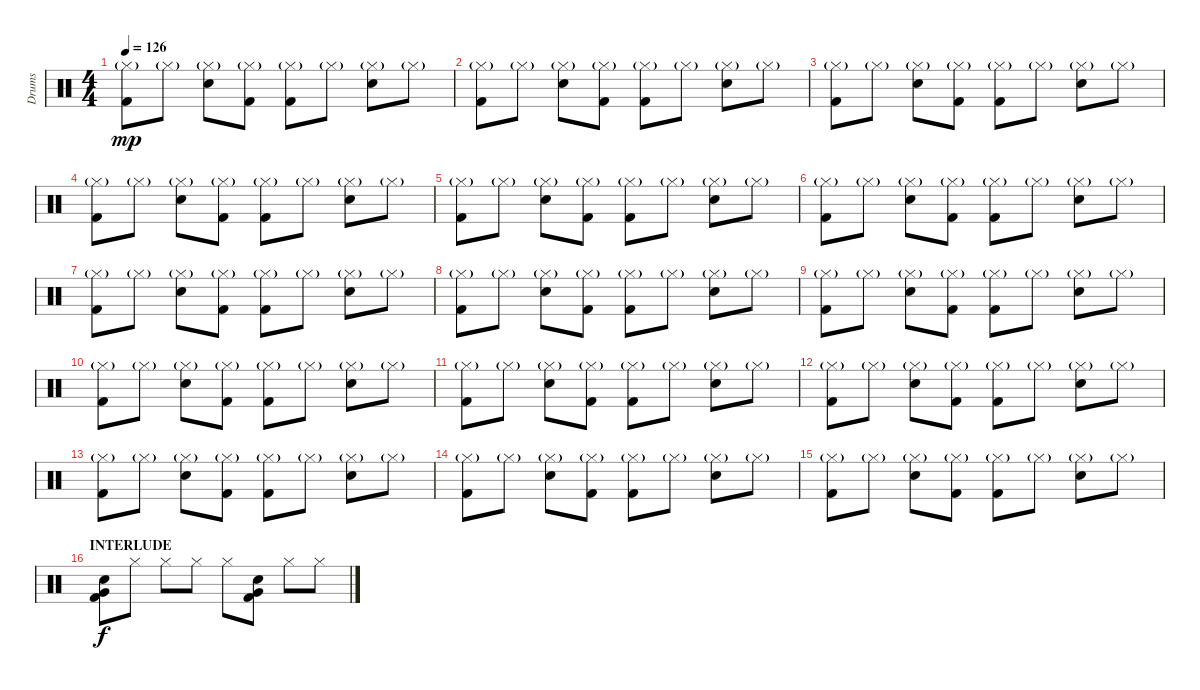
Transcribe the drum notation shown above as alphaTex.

\track ("Drums" "Drums") {instrument percussion}
\staff {score}
\articulation defaults
\ts (4 4)
\tempo 126
\clef neutral
\ks c
("Hi-Hat (closed)"{g} "Kick (hit) 2").8{dy mp} "Hi-Hat (closed)"{g}.8 ("Hi-Hat (closed)"{g} "Snare (hit) 2").8 ("Hi-Hat (closed)"{g} "Kick (hit) 2").8 ("Hi-Hat (closed)"{g} "Kick (hit) 2").8 "Hi-Hat (closed)"{g}.8 ("Hi-Hat (closed)"{g} "Snare (hit) 2").8 "Hi-Hat (closed)"{g}.8 |
("Hi-Hat (closed)"{g} "Kick (hit) 2").8 "Hi-Hat (closed)"{g}.8 ("Hi-Hat (closed)"{g} "Snare (hit) 2").8 ("Hi-Hat (closed)"{g} "Kick (hit) 2").8 ("Hi-Hat (closed)"{g} "Kick (hit) 2").8 "Hi-Hat (closed)"{g}.8 ("Hi-Hat (closed)"{g} "Snare (hit) 2").8 "Hi-Hat (closed)"{g}.8 |
("Hi-Hat (closed)"{g} "Kick (hit) 2").8 "Hi-Hat (closed)"{g}.8 ("Hi-Hat (closed)"{g} "Snare (hit) 2").8 ("Hi-Hat (closed)"{g} "Kick (hit) 2").8 ("Hi-Hat (closed)"{g} "Kick (hit) 2").8 "Hi-Hat (closed)"{g}.8 ("Hi-Hat (closed)"{g} "Snare (hit) 2").8 "Hi-Hat (closed)"{g}.8 |
("Hi-Hat (closed)"{g} "Kick (hit) 2").8 "Hi-Hat (closed)"{g}.8 ("Hi-Hat (closed)"{g} "Snare (hit) 2").8 ("Hi-Hat (closed)"{g} "Kick (hit) 2").8 ("Hi-Hat (closed)"{g} "Kick (hit) 2").8 "Hi-Hat (closed)"{g}.8 ("Hi-Hat (closed)"{g} "Snare (hit) 2").8 "Hi-Hat (closed)"{g}.8 |
("Hi-Hat (closed)"{g} "Kick (hit) 2").8 "Hi-Hat (closed)"{g}.8 ("Hi-Hat (closed)"{g} "Snare (hit) 2").8 ("Hi-Hat (closed)"{g} "Kick (hit) 2").8 ("Hi-Hat (closed)"{g} "Kick (hit) 2").8 "Hi-Hat (closed)"{g}.8 ("Hi-Hat (closed)"{g} "Snare (hit) 2").8 "Hi-Hat (closed)"{g}.8 |
("Hi-Hat (closed)"{g} "Kick (hit) 2").8 "Hi-Hat (closed)"{g}.8 ("Hi-Hat (closed)"{g} "Snare (hit) 2").8 ("Hi-Hat (closed)"{g} "Kick (hit) 2").8 ("Hi-Hat (closed)"{g} "Kick (hit) 2").8 "Hi-Hat (closed)"{g}.8 ("Hi-Hat (closed)"{g} "Snare (hit) 2").8 "Hi-Hat (closed)"{g}.8 |
("Hi-Hat (closed)"{g} "Kick (hit) 2").8 "Hi-Hat (closed)"{g}.8 ("Hi-Hat (closed)"{g} "Snare (hit) 2").8 ("Hi-Hat (closed)"{g} "Kick (hit) 2").8 ("Hi-Hat (closed)"{g} "Kick (hit) 2").8 "Hi-Hat (closed)"{g}.8 ("Hi-Hat (closed)"{g} "Snare (hit) 2").8 "Hi-Hat (closed)"{g}.8 |
("Hi-Hat (closed)"{g} "Kick (hit) 2").8 "Hi-Hat (closed)"{g}.8 ("Hi-Hat (closed)"{g} "Snare (hit) 2").8 ("Hi-Hat (closed)"{g} "Kick (hit) 2").8 ("Hi-Hat (closed)"{g} "Kick (hit) 2").8 "Hi-Hat (closed)"{g}.8 ("Hi-Hat (closed)"{g} "Snare (hit) 2").8 "Hi-Hat (closed)"{g}.8 |
("Hi-Hat (closed)"{g} "Kick (hit) 2").8 "Hi-Hat (closed)"{g}.8 ("Hi-Hat (closed)"{g} "Snare (hit) 2").8 ("Hi-Hat (closed)"{g} "Kick (hit) 2").8 ("Hi-Hat (closed)"{g} "Kick (hit) 2").8 "Hi-Hat (closed)"{g}.8 ("Hi-Hat (closed)"{g} "Snare (hit) 2").8 "Hi-Hat (closed)"{g}.8 |
("Hi-Hat (closed)"{g} "Kick (hit) 2").8 "Hi-Hat (closed)"{g}.8 ("Hi-Hat (closed)"{g} "Snare (hit) 2").8 ("Hi-Hat (closed)"{g} "Kick (hit) 2").8 ("Hi-Hat (closed)"{g} "Kick (hit) 2").8 "Hi-Hat (closed)"{g}.8 ("Hi-Hat (closed)"{g} "Snare (hit) 2").8 "Hi-Hat (closed)"{g}.8 |
("Hi-Hat (closed)"{g} "Kick (hit) 2").8 "Hi-Hat (closed)"{g}.8 ("Hi-Hat (closed)"{g} "Snare (hit) 2").8 ("Hi-Hat (closed)"{g} "Kick (hit) 2").8 ("Hi-Hat (closed)"{g} "Kick (hit) 2").8 "Hi-Hat (closed)"{g}.8 ("Hi-Hat (closed)"{g} "Snare (hit) 2").8 "Hi-Hat (closed)"{g}.8 |
("Hi-Hat (closed)"{g} "Kick (hit) 2").8 "Hi-Hat (closed)"{g}.8 ("Hi-Hat (closed)"{g} "Snare (hit) 2").8 ("Hi-Hat (closed)"{g} "Kick (hit) 2").8 ("Hi-Hat (closed)"{g} "Kick (hit) 2").8 "Hi-Hat (closed)"{g}.8 ("Hi-Hat (closed)"{g} "Snare (hit) 2").8 "Hi-Hat (closed)"{g}.8 |
("Hi-Hat (closed)"{g} "Kick (hit) 2").8 "Hi-Hat (closed)"{g}.8 ("Hi-Hat (closed)"{g} "Snare (hit) 2").8 ("Hi-Hat (closed)"{g} "Kick (hit) 2").8 ("Hi-Hat (closed)"{g} "Kick (hit) 2").8 "Hi-Hat (closed)"{g}.8 ("Hi-Hat (closed)"{g} "Snare (hit) 2").8 "Hi-Hat (closed)"{g}.8 |
("Hi-Hat (closed)"{g} "Kick (hit) 2").8 "Hi-Hat (closed)"{g}.8 ("Hi-Hat (closed)"{g} "Snare (hit) 2").8 ("Hi-Hat (closed)"{g} "Kick (hit) 2").8 ("Hi-Hat (closed)"{g} "Kick (hit) 2").8 "Hi-Hat (closed)"{g}.8 ("Hi-Hat (closed)"{g} "Snare (hit) 2").8 "Hi-Hat (closed)"{g}.8 |
("Hi-Hat (closed)"{g} "Kick (hit) 2").8 "Hi-Hat (closed)"{g}.8 ("Hi-Hat (closed)"{g} "Snare (hit) 2").8 ("Hi-Hat (closed)"{g} "Kick (hit) 2").8 ("Hi-Hat (closed)"{g} "Kick (hit) 2").8 "Hi-Hat (closed)"{g}.8 ("Hi-Hat (closed)"{g} "Snare (hit) 2").8 "Hi-Hat (closed)"{g}.8 |
\section ("" "INTERLUDE")
("Snare (hit) 2" "Very Low Tom (hit)" "Kick (hit) 2").8{dy f} "Hi-Hat (closed)".8 "Hi-Hat (closed)".8 "Hi-Hat (closed)".8 "Hi-Hat (closed)".8 ("Snare (hit) 2" "Very Low Tom (hit)" "Kick (hit) 2").8 "Hi-Hat (closed)".8 "Hi-Hat (closed)".8
